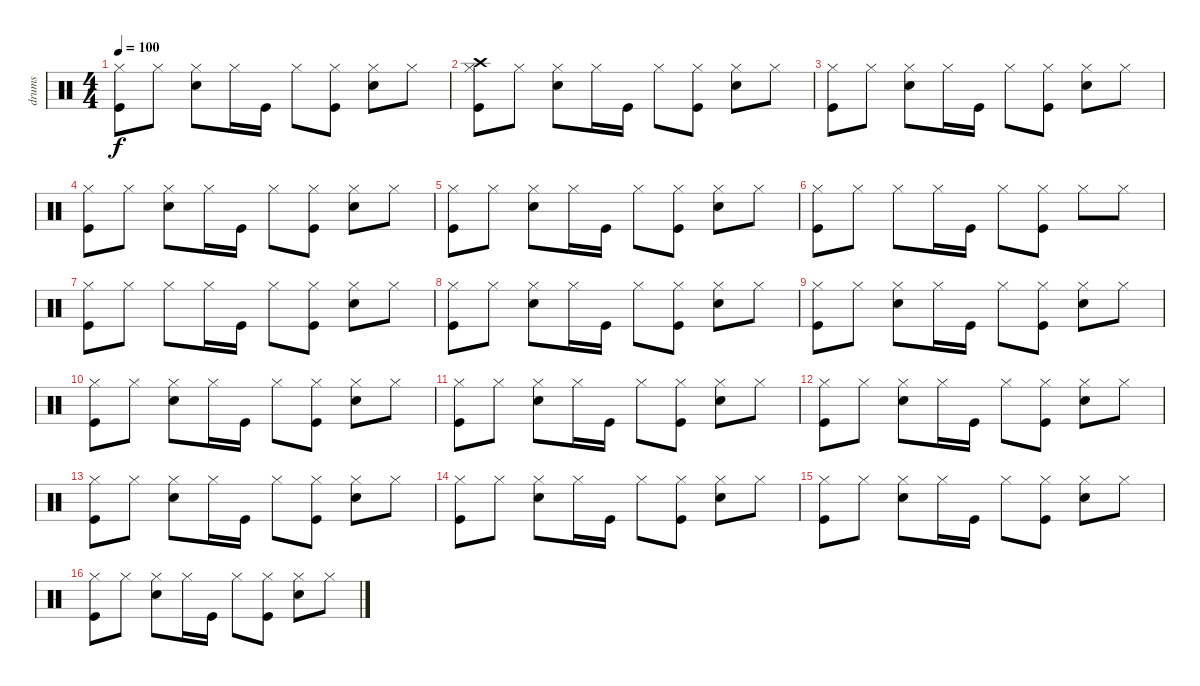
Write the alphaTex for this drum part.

\track ("drums" "drums") {instrument percussion}
\staff {score}
\articulation defaults
\ts (4 4)
\tempo 100
\clef neutral
\ks c
("Kick (hit)" "Hi-Hat (closed)").8{dy f} "Hi-Hat (closed)".8 ("Snare (hit) 2" "Hi-Hat (closed)").8 "Hi-Hat (closed)".16 "Kick (hit)".16 "Hi-Hat (closed)".8 ("Kick (hit)" "Hi-Hat (closed)").8 ("Snare (hit) 2" "Hi-Hat (closed)").8 "Hi-Hat (closed)".8 |
("Kick (hit)" "Hi-Hat (closed)" "Crash high (hit)").8 "Hi-Hat (closed)".8 ("Snare (hit) 2" "Hi-Hat (closed)").8 "Hi-Hat (closed)".16 "Kick (hit)".16 "Hi-Hat (closed)".8 ("Kick (hit)" "Hi-Hat (closed)").8 ("Snare (hit) 2" "Hi-Hat (closed)").8 "Hi-Hat (closed)".8 |
("Kick (hit)" "Hi-Hat (closed)").8 "Hi-Hat (closed)".8 ("Snare (hit) 2" "Hi-Hat (closed)").8 "Hi-Hat (closed)".16 "Kick (hit)".16 "Hi-Hat (closed)".8 ("Kick (hit)" "Hi-Hat (closed)").8 ("Snare (hit) 2" "Hi-Hat (closed)").8 "Hi-Hat (closed)".8 |
("Kick (hit)" "Hi-Hat (closed)").8 "Hi-Hat (closed)".8 ("Snare (hit) 2" "Hi-Hat (closed)").8 "Hi-Hat (closed)".16 "Kick (hit)".16 "Hi-Hat (closed)".8 ("Kick (hit)" "Hi-Hat (closed)").8 ("Snare (hit) 2" "Hi-Hat (closed)").8 "Hi-Hat (closed)".8 |
("Kick (hit)" "Hi-Hat (closed)").8 "Hi-Hat (closed)".8 ("Snare (hit) 2" "Hi-Hat (closed)").8 "Hi-Hat (closed)".16 "Kick (hit)".16 "Hi-Hat (closed)".8 ("Kick (hit)" "Hi-Hat (closed)").8 ("Snare (hit) 2" "Hi-Hat (closed)").8 "Hi-Hat (closed)".8 |
("Kick (hit)" "Hi-Hat (closed)").8 "Hi-Hat (closed)".8 "Hi-Hat (closed)".8 "Hi-Hat (closed)".16 "Kick (hit)".16 "Hi-Hat (closed)".8 ("Kick (hit)" "Hi-Hat (closed)").8 "Hi-Hat (closed)".8 "Hi-Hat (closed)".8 |
("Kick (hit)" "Hi-Hat (closed)").8 "Hi-Hat (closed)".8 "Hi-Hat (closed)".8 "Hi-Hat (closed)".16 "Kick (hit)".16 "Hi-Hat (closed)".8 ("Kick (hit)" "Hi-Hat (closed)").8 ("Snare (hit) 2" "Hi-Hat (closed)").8 "Hi-Hat (closed)".8 |
("Kick (hit)" "Hi-Hat (closed)").8 "Hi-Hat (closed)".8 ("Snare (hit) 2" "Hi-Hat (closed)").8 "Hi-Hat (closed)".16 "Kick (hit)".16 "Hi-Hat (closed)".8 ("Kick (hit)" "Hi-Hat (closed)").8 ("Snare (hit) 2" "Hi-Hat (closed)").8 "Hi-Hat (closed)".8 |
("Kick (hit)" "Hi-Hat (closed)").8 "Hi-Hat (closed)".8 ("Snare (hit) 2" "Hi-Hat (closed)").8 "Hi-Hat (closed)".16 "Kick (hit)".16 "Hi-Hat (closed)".8 ("Kick (hit)" "Hi-Hat (closed)").8 ("Snare (hit) 2" "Hi-Hat (closed)").8 "Hi-Hat (closed)".8 |
("Kick (hit)" "Hi-Hat (closed)").8 "Hi-Hat (closed)".8 ("Snare (hit) 2" "Hi-Hat (closed)").8 "Hi-Hat (closed)".16 "Kick (hit)".16 "Hi-Hat (closed)".8 ("Kick (hit)" "Hi-Hat (closed)").8 ("Snare (hit) 2" "Hi-Hat (closed)").8 "Hi-Hat (closed)".8 |
("Kick (hit)" "Hi-Hat (closed)").8 "Hi-Hat (closed)".8 ("Snare (hit) 2" "Hi-Hat (closed)").8 "Hi-Hat (closed)".16 "Kick (hit)".16 "Hi-Hat (closed)".8 ("Kick (hit)" "Hi-Hat (closed)").8 ("Snare (hit) 2" "Hi-Hat (closed)").8 "Hi-Hat (closed)".8 |
("Kick (hit)" "Hi-Hat (closed)").8 "Hi-Hat (closed)".8 ("Snare (hit) 2" "Hi-Hat (closed)").8 "Hi-Hat (closed)".16 "Kick (hit)".16 "Hi-Hat (closed)".8 ("Kick (hit)" "Hi-Hat (closed)").8 ("Snare (hit) 2" "Hi-Hat (closed)").8 "Hi-Hat (closed)".8 |
("Kick (hit)" "Hi-Hat (closed)").8 "Hi-Hat (closed)".8 ("Snare (hit) 2" "Hi-Hat (closed)").8 "Hi-Hat (closed)".16 "Kick (hit)".16 "Hi-Hat (closed)".8 ("Kick (hit)" "Hi-Hat (closed)").8 ("Snare (hit) 2" "Hi-Hat (closed)").8 "Hi-Hat (closed)".8 |
("Kick (hit)" "Hi-Hat (closed)").8 "Hi-Hat (closed)".8 ("Snare (hit) 2" "Hi-Hat (closed)").8 "Hi-Hat (closed)".16 "Kick (hit)".16 "Hi-Hat (closed)".8 ("Kick (hit)" "Hi-Hat (closed)").8 ("Snare (hit) 2" "Hi-Hat (closed)").8 "Hi-Hat (closed)".8 |
("Kick (hit)" "Hi-Hat (closed)").8 "Hi-Hat (closed)".8 ("Snare (hit) 2" "Hi-Hat (closed)").8 "Hi-Hat (closed)".16 "Kick (hit)".16 "Hi-Hat (closed)".8 ("Kick (hit)" "Hi-Hat (closed)").8 ("Snare (hit) 2" "Hi-Hat (closed)").8 "Hi-Hat (closed)".8 |
("Kick (hit)" "Hi-Hat (closed)").8 "Hi-Hat (closed)".8 ("Snare (hit) 2" "Hi-Hat (closed)").8 "Hi-Hat (closed)".16 "Kick (hit)".16 "Hi-Hat (closed)".8 ("Kick (hit)" "Hi-Hat (closed)").8 ("Snare (hit) 2" "Hi-Hat (closed)").8 "Hi-Hat (closed)".8
